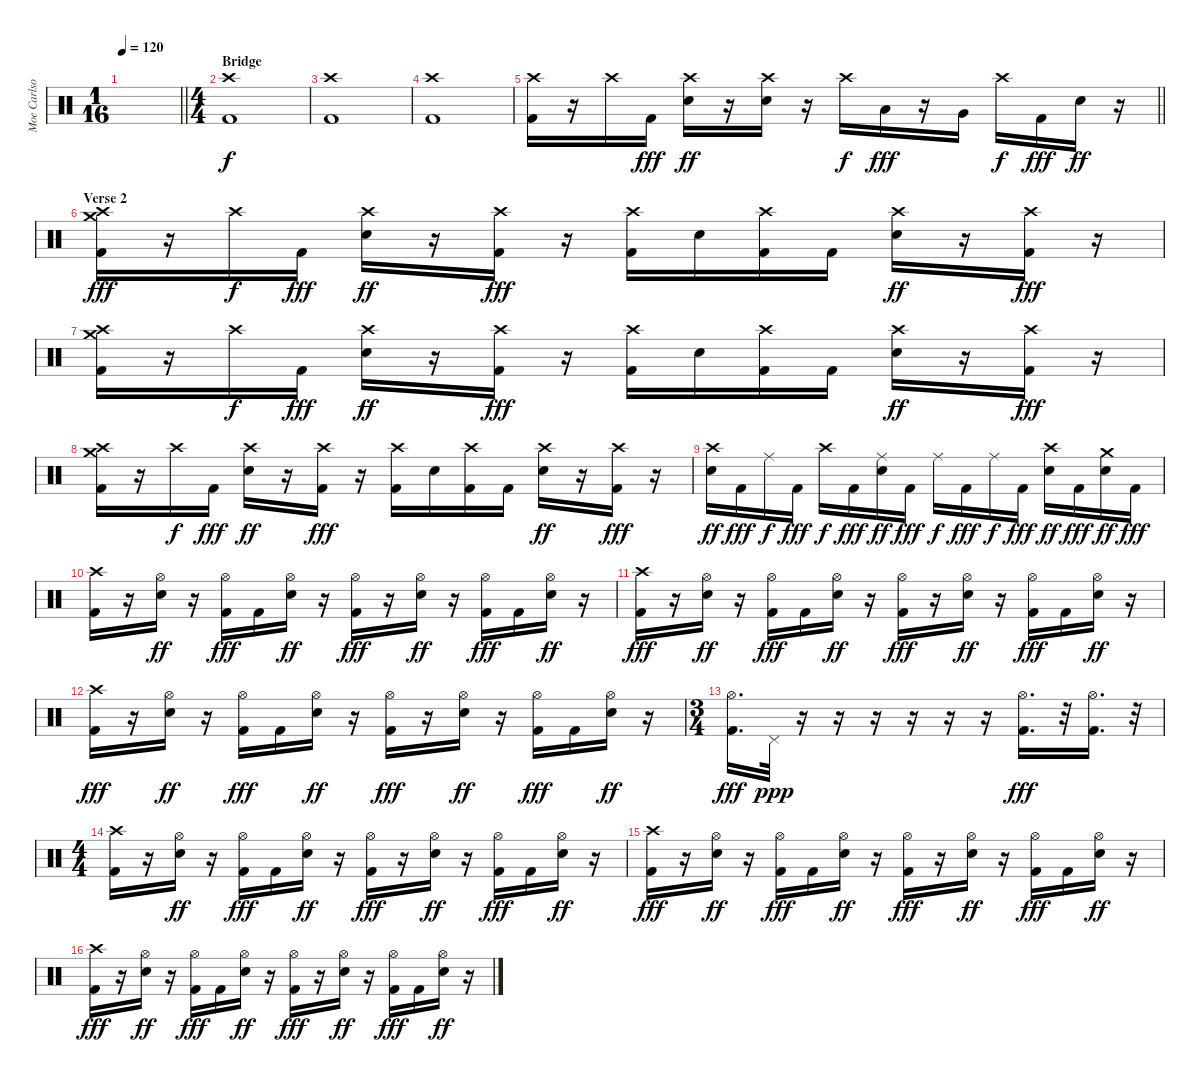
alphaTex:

\track ("Moe Carlson" "Moe Carlso") {instrument percussion}
\staff {score}
\articulation defaults
\ts (1 16)
\tempo 120
\clef neutral
\barLineRight lightlight
\ks c
|
\ts (4 4)
\section ("" "Bridge")
("Crash high (hit)" "Kick (hit) 2").1 |
("Crash high (hit)" "Kick (hit) 2").1 |
("Crash high (hit)" "Kick (hit) 2").1 |
\barLineRight lightlight
("Crash high (hit)" "Kick (hit) 2").16 r.16 "Crash high (hit)".16{dy f} "Kick (hit) 2".16{dy fff} ("Crash high (hit)" "Electric Snare (hit)").16{dy ff} r.16 ("Crash high (hit)" "Electric Snare (hit)").16 r.16 "Crash high (hit)".16{dy f} "Low Tom (hit)".16{dy fff} r.16 "Very Low Tom (hit)".16 "Crash high (hit)".16{dy f} "Kick (hit) 2".16{dy fff} "Electric Snare (hit)".16{dy ff} r.16 |
\section ("" "Verse 2")
("Crash medium (hit)" "Crash high (hit)" "Kick (hit) 2").16{dy fff} r.16 "Crash high (hit)".16{dy f} "Kick (hit) 2".16{dy fff} ("Crash high (hit)" "Electric Snare (hit)").16{dy ff} r.16 ("Crash high (hit)" "Kick (hit) 2").16{dy fff} r.16 ("Crash high (hit)" "Kick (hit) 2").16 "Electric Snare (hit)".16 ("Crash high (hit)" "Kick (hit) 2").16 "Kick (hit) 2".16 ("Crash high (hit)" "Electric Snare (hit)").16{dy ff} r.16 ("Crash high (hit)" "Kick (hit) 2").16{dy fff} r.16 |
("Crash medium (hit)" "Crash high (hit)" "Kick (hit) 2").16 r.16 "Crash high (hit)".16{dy f} "Kick (hit) 2".16{dy fff} ("Crash high (hit)" "Electric Snare (hit)").16{dy ff} r.16 ("Crash high (hit)" "Kick (hit) 2").16{dy fff} r.16 ("Crash high (hit)" "Kick (hit) 2").16 "Electric Snare (hit)".16 ("Crash high (hit)" "Kick (hit) 2").16 "Kick (hit) 2".16 ("Crash high (hit)" "Electric Snare (hit)").16{dy ff} r.16 ("Crash high (hit)" "Kick (hit) 2").16{dy fff} r.16 |
("Crash medium (hit)" "Crash high (hit)" "Kick (hit) 2").16 r.16 "Crash high (hit)".16{dy f} "Kick (hit) 2".16{dy fff} ("Crash high (hit)" "Electric Snare (hit)").16{dy ff} r.16 ("Crash high (hit)" "Kick (hit) 2").16{dy fff} r.16 ("Crash high (hit)" "Kick (hit) 2").16 "Electric Snare (hit)".16 ("Crash high (hit)" "Kick (hit) 2").16 "Kick (hit) 2".16 ("Crash high (hit)" "Electric Snare (hit)").16{dy ff} r.16 ("Crash high (hit)" "Kick (hit) 2").16{dy fff} r.16 |
("Crash high (hit)" "Electric Snare (hit)").16{dy ff} "Kick (hit) 2".16{dy fff} "Ride (middle)".16{dy f} "Kick (hit) 2".16{dy fff} "Crash high (hit)".16{dy f} "Kick (hit) 2".16{dy fff} ("Ride (middle)" "Electric Snare (hit)").16{dy ff} "Kick (hit) 2".16{dy fff} "Ride (middle)".16{dy f} "Kick (hit) 2".16{dy fff} "Ride (middle)".16{dy f} "Kick (hit) 2".16{dy fff} ("Crash high (hit)" "Electric Snare (hit)").16{dy ff} "Kick (hit) 2".16{dy fff} ("Crash medium (hit)" "Electric Snare (hit)").16{dy ff} "Kick (hit) 2".16{dy fff} |
("Crash high (hit)" "Kick (hit) 2").16 r.16 ("Hi-Hat (open)" "Electric Snare (hit)").16{dy ff} r.16 ("Hi-Hat (open)" "Kick (hit) 2").16{dy fff} "Kick (hit) 2".16 ("Hi-Hat (open)" "Electric Snare (hit)").16{dy ff} r.16 ("Hi-Hat (open)" "Kick (hit) 2").16{dy fff} r.16 ("Hi-Hat (open)" "Electric Snare (hit)").16{dy ff} r.16 ("Hi-Hat (open)" "Kick (hit) 2").16{dy fff} "Kick (hit) 2".16 ("Hi-Hat (open)" "Electric Snare (hit)").16{dy ff} r.16 |
("Crash high (hit)" "Kick (hit) 2").16{dy fff} r.16 ("Hi-Hat (open)" "Electric Snare (hit)").16{dy ff} r.16 ("Hi-Hat (open)" "Kick (hit) 2").16{dy fff} "Kick (hit) 2".16 ("Hi-Hat (open)" "Electric Snare (hit)").16{dy ff} r.16 ("Hi-Hat (open)" "Kick (hit) 2").16{dy fff} r.16 ("Hi-Hat (open)" "Electric Snare (hit)").16{dy ff} r.16 ("Hi-Hat (open)" "Kick (hit) 2").16{dy fff} "Kick (hit) 2".16 ("Hi-Hat (open)" "Electric Snare (hit)").16{dy ff} r.16 |
("Crash high (hit)" "Kick (hit) 2").16{dy fff} r.16 ("Hi-Hat (open)" "Electric Snare (hit)").16{dy ff} r.16 ("Hi-Hat (open)" "Kick (hit) 2").16{dy fff} "Kick (hit) 2".16 ("Hi-Hat (open)" "Electric Snare (hit)").16{dy ff} r.16 ("Hi-Hat (open)" "Kick (hit) 2").16{dy fff} r.16 ("Hi-Hat (open)" "Electric Snare (hit)").16{dy ff} r.16 ("Hi-Hat (open)" "Kick (hit) 2").16{dy fff} "Kick (hit) 2".16 ("Hi-Hat (open)" "Electric Snare (hit)").16{dy ff} r.16 |
\ts (3 4)
("Hi-Hat (open)" "Kick (hit) 2").16{d dy fff} "Pedal Hi-Hat (hit)".32{dy ppp} r.16 r.16 r.16 r.16 r.16 r.16 ("Hi-Hat (open)" "Kick (hit) 2").16{d dy fff} r.32 ("Hi-Hat (open)" "Kick (hit) 2").16{d} r.32 |
\ts (4 4)
("Crash high (hit)" "Kick (hit) 2").16 r.16 ("Hi-Hat (open)" "Electric Snare (hit)").16{dy ff} r.16 ("Hi-Hat (open)" "Kick (hit) 2").16{dy fff} "Kick (hit) 2".16 ("Hi-Hat (open)" "Electric Snare (hit)").16{dy ff} r.16 ("Hi-Hat (open)" "Kick (hit) 2").16{dy fff} r.16 ("Hi-Hat (open)" "Electric Snare (hit)").16{dy ff} r.16 ("Hi-Hat (open)" "Kick (hit) 2").16{dy fff} "Kick (hit) 2".16 ("Hi-Hat (open)" "Electric Snare (hit)").16{dy ff} r.16 |
("Crash high (hit)" "Kick (hit) 2").16{dy fff} r.16 ("Hi-Hat (open)" "Electric Snare (hit)").16{dy ff} r.16 ("Hi-Hat (open)" "Kick (hit) 2").16{dy fff} "Kick (hit) 2".16 ("Hi-Hat (open)" "Electric Snare (hit)").16{dy ff} r.16 ("Hi-Hat (open)" "Kick (hit) 2").16{dy fff} r.16 ("Hi-Hat (open)" "Electric Snare (hit)").16{dy ff} r.16 ("Hi-Hat (open)" "Kick (hit) 2").16{dy fff} "Kick (hit) 2".16 ("Hi-Hat (open)" "Electric Snare (hit)").16{dy ff} r.16 |
("Crash high (hit)" "Kick (hit) 2").16{dy fff} r.16 ("Hi-Hat (open)" "Electric Snare (hit)").16{dy ff} r.16 ("Hi-Hat (open)" "Kick (hit) 2").16{dy fff} "Kick (hit) 2".16 ("Hi-Hat (open)" "Electric Snare (hit)").16{dy ff} r.16 ("Hi-Hat (open)" "Kick (hit) 2").16{dy fff} r.16 ("Hi-Hat (open)" "Electric Snare (hit)").16{dy ff} r.16 ("Hi-Hat (open)" "Kick (hit) 2").16{dy fff} "Kick (hit) 2".16 ("Hi-Hat (open)" "Electric Snare (hit)").16{dy ff} r.16
